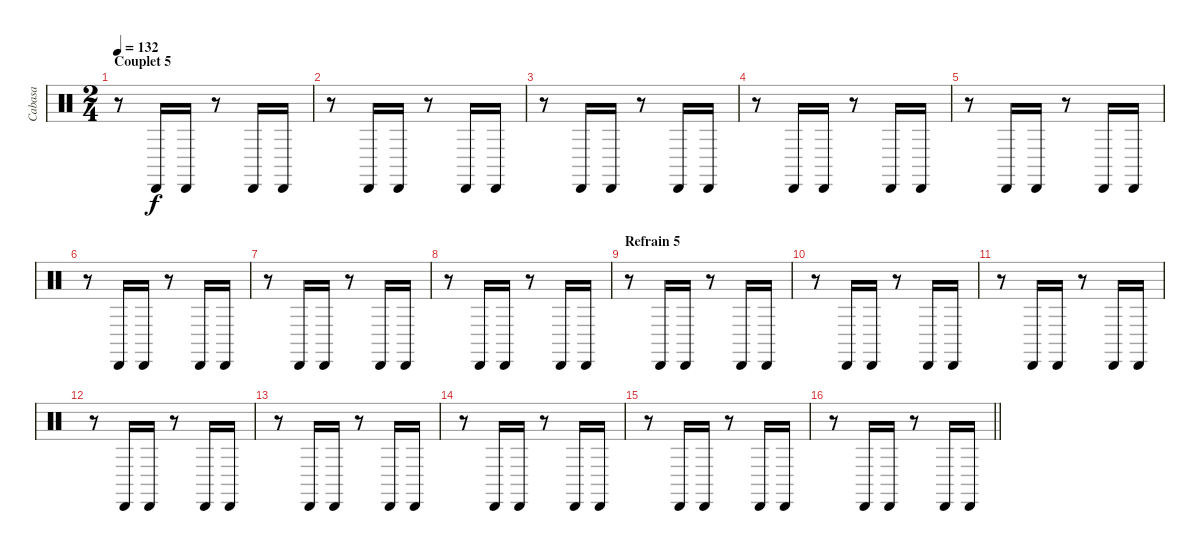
\track ("Cabasa" "Cabasa") {instrument percussion}
\staff {score}
\articulation defaults
\ts (2 4)
\section ("" "Couplet 5")
\tempo 132
\clef neutral
\ks c
r.8{dy f} "Cabasa (hit)".16 "Cabasa (hit)".16 r.8 "Cabasa (hit)".16 "Cabasa (hit)".16 |
r.8 "Cabasa (hit)".16 "Cabasa (hit)".16 r.8 "Cabasa (hit)".16 "Cabasa (hit)".16 |
r.8 "Cabasa (hit)".16 "Cabasa (hit)".16 r.8 "Cabasa (hit)".16 "Cabasa (hit)".16 |
r.8 "Cabasa (hit)".16 "Cabasa (hit)".16 r.8 "Cabasa (hit)".16 "Cabasa (hit)".16 |
r.8 "Cabasa (hit)".16 "Cabasa (hit)".16 r.8 "Cabasa (hit)".16 "Cabasa (hit)".16 |
r.8 "Cabasa (hit)".16 "Cabasa (hit)".16 r.8 "Cabasa (hit)".16 "Cabasa (hit)".16 |
r.8 "Cabasa (hit)".16 "Cabasa (hit)".16 r.8 "Cabasa (hit)".16 "Cabasa (hit)".16 |
r.8 "Cabasa (hit)".16 "Cabasa (hit)".16 r.8 "Cabasa (hit)".16 "Cabasa (hit)".16 |
\section ("" "Refrain 5")
r.8 "Cabasa (hit)".16 "Cabasa (hit)".16 r.8 "Cabasa (hit)".16 "Cabasa (hit)".16 |
r.8 "Cabasa (hit)".16 "Cabasa (hit)".16 r.8 "Cabasa (hit)".16 "Cabasa (hit)".16 |
r.8 "Cabasa (hit)".16 "Cabasa (hit)".16 r.8 "Cabasa (hit)".16 "Cabasa (hit)".16 |
r.8 "Cabasa (hit)".16 "Cabasa (hit)".16 r.8 "Cabasa (hit)".16 "Cabasa (hit)".16 |
r.8 "Cabasa (hit)".16 "Cabasa (hit)".16 r.8 "Cabasa (hit)".16 "Cabasa (hit)".16 |
r.8 "Cabasa (hit)".16 "Cabasa (hit)".16 r.8 "Cabasa (hit)".16 "Cabasa (hit)".16 |
r.8 "Cabasa (hit)".16 "Cabasa (hit)".16 r.8 "Cabasa (hit)".16 "Cabasa (hit)".16 |
\barLineRight lightlight
r.8 "Cabasa (hit)".16 "Cabasa (hit)".16 r.8 "Cabasa (hit)".16 "Cabasa (hit)".16
